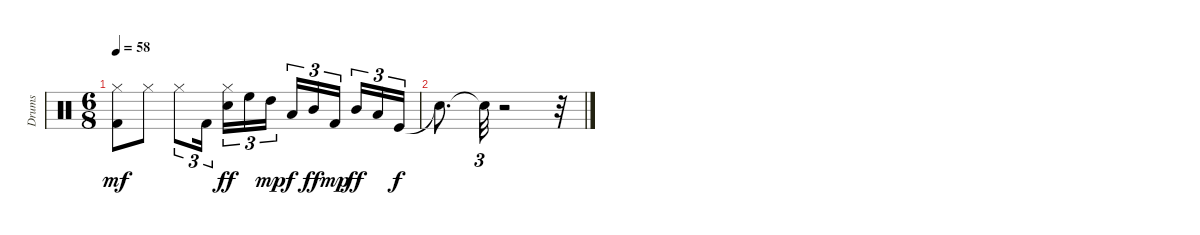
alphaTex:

\track ("Drums " "Drums ") {instrument percussion}
\staff {score}
\articulation defaults
\ts (6 8)
\tempo 58
\clef neutral
\ks c
("Kick (hit) 2" "Hi-Hat (closed)").8{dy mf} "Hi-Hat (closed)".8 "Hi-Hat (closed)".8{tu (3 2)} "Kick (hit) 2".16{tu (3 2)} ("Electric Snare (hit)" "Hi-Hat (closed)").16{tu (3 2) dy ff} "High Floor Tom (hit)".16{tu (3 2)} "High Tom (hit)".16{tu (3 2) dy mp} "Low Tom (hit)".16{tu (3 2) dy f} "Mid Tom (hit)".16{tu (3 2) dy ff} "Kick (hit) 2".16{tu (3 2) dy mp} "Mid Tom (hit)".16{tu (3 2) dy ff} "Low Tom (hit)".16{tu (3 2)} "Kick (hit)".16{tu (3 2) dy f} |
"Snare (hit)"{t}.8{d} "Snare (hit)"{t}.32{tu (3 2)} r.2 r.32
